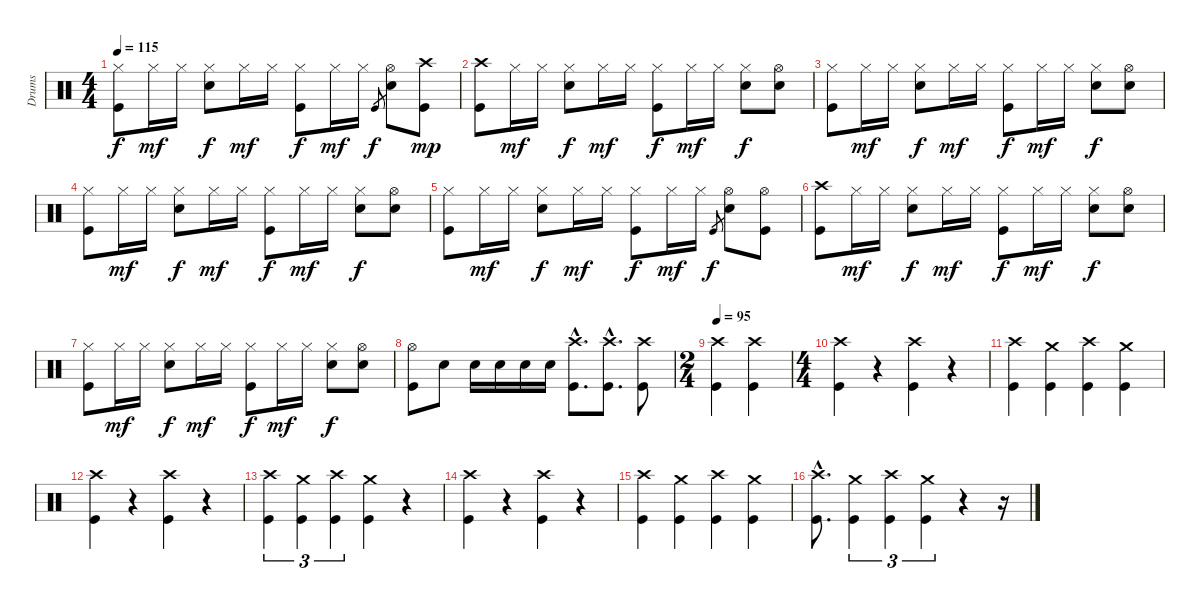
\track ("Drums" "Drums") {instrument percussion}
\staff {score}
\articulation defaults
\ts (4 4)
\tempo 115
\clef neutral
\ks c
("Hi-Hat (closed)" "Kick (hit)").8{dy f} "Hi-Hat (closed)".16{dy mf} "Hi-Hat (closed)".16 ("Hi-Hat (closed)" "Snare (hit) 2").8{dy f} "Hi-Hat (closed)".16{dy mf} "Hi-Hat (closed)".16 ("Hi-Hat (closed)" "Kick (hit)").8{dy f} "Hi-Hat (closed)".16{dy mf} "Hi-Hat (closed)".16 "Kick (hit)".8{gr dy f} ("Hi-Hat (open)" "Snare (hit) 2").8 ("Crash high (hit)" "Kick (hit)").8{dy mp} |
("Crash high (hit)" "Kick (hit)").8 "Hi-Hat (closed)".16{dy mf} "Hi-Hat (closed)".16 ("Hi-Hat (closed)" "Snare (hit) 2").8{dy f} "Hi-Hat (closed)".16{dy mf} "Hi-Hat (closed)".16 ("Hi-Hat (closed)" "Kick (hit)").8{dy f} "Hi-Hat (closed)".16{dy mf} "Hi-Hat (closed)".16 ("Hi-Hat (closed)" "Snare (hit) 2").8{dy f} ("Hi-Hat (open)" "Snare (hit) 2").8 |
("Hi-Hat (closed)" "Kick (hit)").8 "Hi-Hat (closed)".16{dy mf} "Hi-Hat (closed)".16 ("Hi-Hat (closed)" "Snare (hit) 2").8{dy f} "Hi-Hat (closed)".16{dy mf} "Hi-Hat (closed)".16 ("Hi-Hat (closed)" "Kick (hit)").8{dy f} "Hi-Hat (closed)".16{dy mf} "Hi-Hat (closed)".16 ("Hi-Hat (closed)" "Snare (hit) 2").8{dy f} ("Hi-Hat (open)" "Snare (hit) 2").8 |
("Hi-Hat (closed)" "Kick (hit)").8 "Hi-Hat (closed)".16{dy mf} "Hi-Hat (closed)".16 ("Hi-Hat (closed)" "Snare (hit) 2").8{dy f} "Hi-Hat (closed)".16{dy mf} "Hi-Hat (closed)".16 ("Hi-Hat (closed)" "Kick (hit)").8{dy f} "Hi-Hat (closed)".16{dy mf} "Hi-Hat (closed)".16 ("Hi-Hat (closed)" "Snare (hit) 2").8{dy f} ("Hi-Hat (open)" "Snare (hit) 2").8 |
("Hi-Hat (closed)" "Kick (hit)").8 "Hi-Hat (closed)".16{dy mf} "Hi-Hat (closed)".16 ("Hi-Hat (closed)" "Snare (hit) 2").8{dy f} "Hi-Hat (closed)".16{dy mf} "Hi-Hat (closed)".16 ("Hi-Hat (closed)" "Kick (hit)").8{dy f} "Hi-Hat (closed)".16{dy mf} "Hi-Hat (closed)".16 "Kick (hit)".8{gr dy f} ("Hi-Hat (open)" "Snare (hit) 2").8 ("Hi-Hat (open)" "Kick (hit)").8 |
("Crash high (hit)" "Kick (hit)").8 "Hi-Hat (closed)".16{dy mf} "Hi-Hat (closed)".16 ("Hi-Hat (closed)" "Snare (hit) 2").8{dy f} "Hi-Hat (closed)".16{dy mf} "Hi-Hat (closed)".16 ("Hi-Hat (closed)" "Kick (hit)").8{dy f} "Hi-Hat (closed)".16{dy mf} "Hi-Hat (closed)".16 ("Hi-Hat (closed)" "Snare (hit) 2").8{dy f} ("Hi-Hat (open)" "Snare (hit) 2").8 |
("Hi-Hat (closed)" "Kick (hit)").8 "Hi-Hat (closed)".16{dy mf} "Hi-Hat (closed)".16 ("Hi-Hat (closed)" "Snare (hit) 2").8{dy f} "Hi-Hat (closed)".16{dy mf} "Hi-Hat (closed)".16 ("Hi-Hat (closed)" "Kick (hit)").8{dy f} "Hi-Hat (closed)".16{dy mf} "Hi-Hat (closed)".16 ("Hi-Hat (closed)" "Snare (hit) 2").8{dy f} ("Hi-Hat (open)" "Snare (hit) 2").8 |
("Hi-Hat (open)" "Kick (hit)").8 "Snare (hit) 2".8 "Snare (hit) 2".16 "Snare (hit) 2".16 "Snare (hit) 2".16 "Snare (hit) 2".16 ("Crash high (hit)"{hac} "Kick (hit)"{hac}).8{d} ("Crash high (hit)"{hac} "Kick (hit)"{hac}).8{d} ("Crash high (hit)" "Kick (hit)").8 |
\ts (2 4)
\tempo 95
("Crash high (hit)" "Kick (hit)").4 ("Crash high (hit)" "Kick (hit)").4 |
\ts (4 4)
("Crash high (hit)" "Kick (hit)").4 r.4 ("Crash high (hit)" "Kick (hit)").4 r.4 |
("Crash high (hit)" "Kick (hit)").4 ("Crash medium (hit)" "Kick (hit)").4 ("Crash high (hit)" "Kick (hit)").4 ("Crash medium (hit)" "Kick (hit)").4 |
("Crash high (hit)" "Kick (hit)").4 r.4 ("Crash high (hit)" "Kick (hit)").4 r.4 |
("Crash high (hit)" "Kick (hit)").4{tu (3 2)} ("Crash medium (hit)" "Kick (hit)").4{tu (3 2)} ("Crash high (hit)" "Kick (hit)").4{tu (3 2)} ("Crash medium (hit)" "Kick (hit)").4 r.4 |
("Crash high (hit)" "Kick (hit)").4 r.4 ("Crash high (hit)" "Kick (hit)").4 r.4 |
("Crash high (hit)" "Kick (hit)").4 ("Crash medium (hit)" "Kick (hit)").4 ("Crash high (hit)" "Kick (hit)").4 ("Crash medium (hit)" "Kick (hit)").4 |
("Crash high (hit)"{hac} "Kick (hit)"{hac}).8{d} ("Crash medium (hit)" "Kick (hit)").4{tu (3 2)} ("Crash high (hit)" "Kick (hit)").4{tu (3 2)} ("Crash medium (hit)" "Kick (hit)").4{tu (3 2)} r.4 r.16
